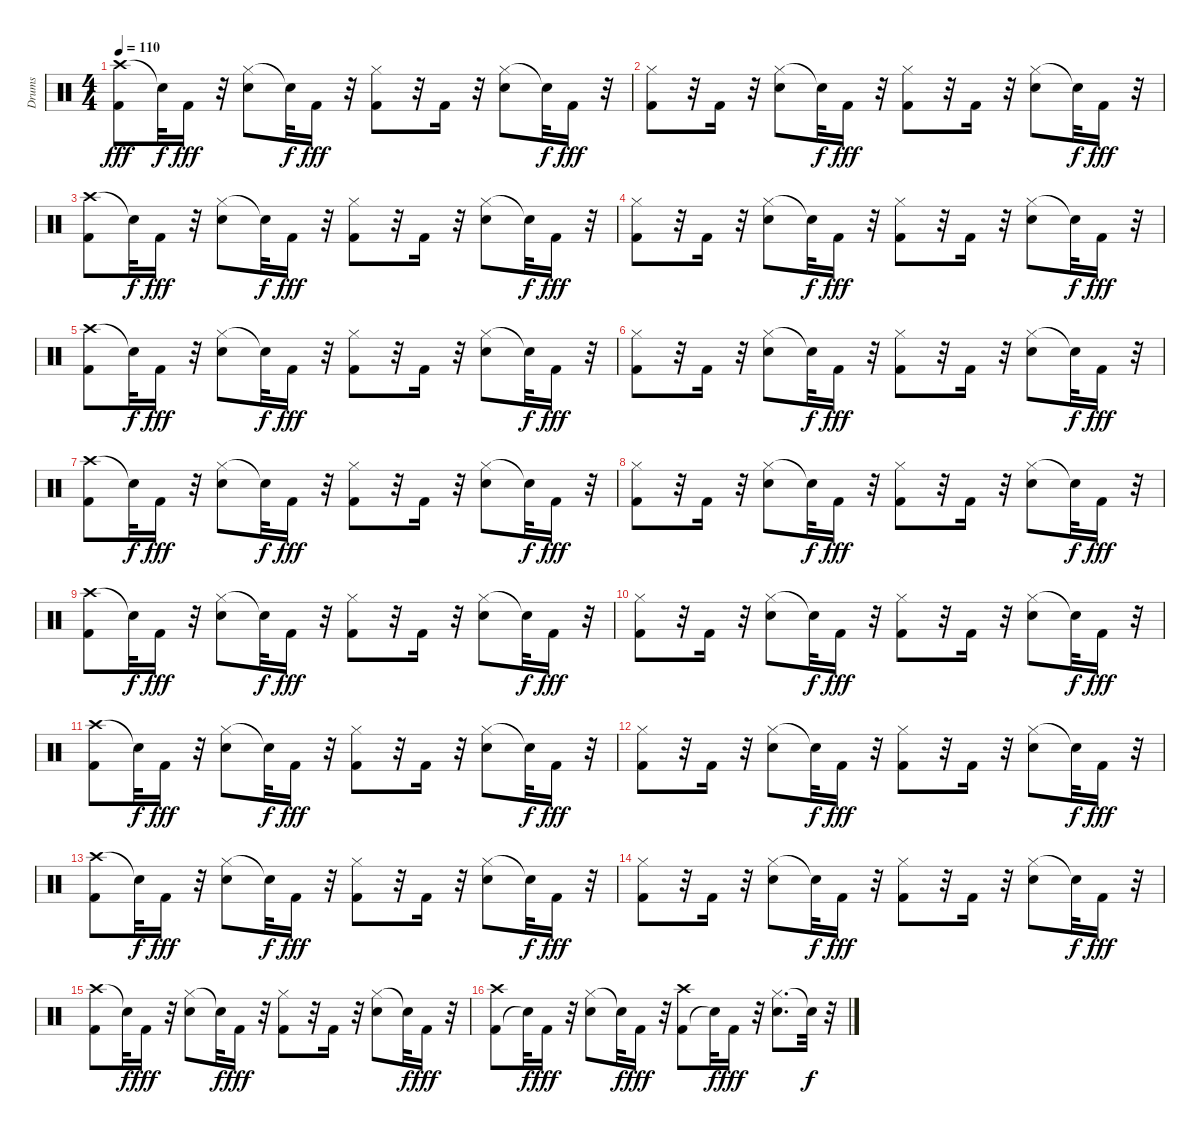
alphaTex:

\track ("Drums" "Drums") {instrument percussion}
\staff {score}
\articulation defaults
\ts (4 4)
\tempo 110
\clef neutral
\ks c
("Crash high (hit)" "Kick (hit) 2").8{dy fff} "Snare (hit)"{t}.32{dy f} "Kick (hit) 2".16{dy fff} r.32 ("Hi-Hat (closed)" "Snare (hit) 2").8 "Snare (hit)"{t}.32{dy f} "Kick (hit) 2".16{dy fff} r.32 ("Kick (hit) 2" "Hi-Hat (closed)").8 r.32 "Kick (hit) 2".16 r.32 ("Hi-Hat (closed)" "Snare (hit) 2").8 "Snare (hit)"{t}.32{dy f} "Kick (hit) 2".16{dy fff} r.32 |
("Kick (hit) 2" "Hi-Hat (closed)").8 r.32 "Kick (hit) 2".16 r.32 ("Hi-Hat (closed)" "Snare (hit) 2").8 "Snare (hit)"{t}.32{dy f} "Kick (hit) 2".16{dy fff} r.32 ("Kick (hit) 2" "Hi-Hat (closed)").8 r.32 "Kick (hit) 2".16 r.32 ("Hi-Hat (closed)" "Snare (hit) 2").8 "Snare (hit)"{t}.32{dy f} "Kick (hit) 2".16{dy fff} r.32 |
("Crash high (hit)" "Kick (hit) 2").8 "Snare (hit)"{t}.32{dy f} "Kick (hit) 2".16{dy fff} r.32 ("Hi-Hat (closed)" "Snare (hit) 2").8 "Snare (hit)"{t}.32{dy f} "Kick (hit) 2".16{dy fff} r.32 ("Kick (hit) 2" "Hi-Hat (closed)").8 r.32 "Kick (hit) 2".16 r.32 ("Hi-Hat (closed)" "Snare (hit) 2").8 "Snare (hit)"{t}.32{dy f} "Kick (hit) 2".16{dy fff} r.32 |
("Kick (hit) 2" "Hi-Hat (closed)").8 r.32 "Kick (hit) 2".16 r.32 ("Hi-Hat (closed)" "Snare (hit) 2").8 "Snare (hit)"{t}.32{dy f} "Kick (hit) 2".16{dy fff} r.32 ("Kick (hit) 2" "Hi-Hat (closed)").8 r.32 "Kick (hit) 2".16 r.32 ("Hi-Hat (closed)" "Snare (hit) 2").8 "Snare (hit)"{t}.32{dy f} "Kick (hit) 2".16{dy fff} r.32 |
("Crash high (hit)" "Kick (hit) 2").8 "Snare (hit)"{t}.32{dy f} "Kick (hit) 2".16{dy fff} r.32 ("Hi-Hat (closed)" "Snare (hit) 2").8 "Snare (hit)"{t}.32{dy f} "Kick (hit) 2".16{dy fff} r.32 ("Kick (hit) 2" "Hi-Hat (closed)").8 r.32 "Kick (hit) 2".16 r.32 ("Hi-Hat (closed)" "Snare (hit) 2").8 "Snare (hit)"{t}.32{dy f} "Kick (hit) 2".16{dy fff} r.32 |
("Kick (hit) 2" "Hi-Hat (closed)").8 r.32 "Kick (hit) 2".16 r.32 ("Hi-Hat (closed)" "Snare (hit) 2").8 "Snare (hit)"{t}.32{dy f} "Kick (hit) 2".16{dy fff} r.32 ("Kick (hit) 2" "Hi-Hat (closed)").8 r.32 "Kick (hit) 2".16 r.32 ("Hi-Hat (closed)" "Snare (hit) 2").8 "Snare (hit)"{t}.32{dy f} "Kick (hit) 2".16{dy fff} r.32 |
("Crash high (hit)" "Kick (hit) 2").8 "Snare (hit)"{t}.32{dy f} "Kick (hit) 2".16{dy fff} r.32 ("Hi-Hat (closed)" "Snare (hit) 2").8 "Snare (hit)"{t}.32{dy f} "Kick (hit) 2".16{dy fff} r.32 ("Kick (hit) 2" "Hi-Hat (closed)").8 r.32 "Kick (hit) 2".16 r.32 ("Hi-Hat (closed)" "Snare (hit) 2").8 "Snare (hit)"{t}.32{dy f} "Kick (hit) 2".16{dy fff} r.32 |
("Kick (hit) 2" "Hi-Hat (closed)").8 r.32 "Kick (hit) 2".16 r.32 ("Hi-Hat (closed)" "Snare (hit) 2").8 "Snare (hit)"{t}.32{dy f} "Kick (hit) 2".16{dy fff} r.32 ("Kick (hit) 2" "Hi-Hat (closed)").8 r.32 "Kick (hit) 2".16 r.32 ("Hi-Hat (closed)" "Snare (hit) 2").8 "Snare (hit)"{t}.32{dy f} "Kick (hit) 2".16{dy fff} r.32 |
("Crash high (hit)" "Kick (hit) 2").8 "Snare (hit)"{t}.32{dy f} "Kick (hit) 2".16{dy fff} r.32 ("Hi-Hat (closed)" "Snare (hit) 2").8 "Snare (hit)"{t}.32{dy f} "Kick (hit) 2".16{dy fff} r.32 ("Kick (hit) 2" "Hi-Hat (closed)").8 r.32 "Kick (hit) 2".16 r.32 ("Hi-Hat (closed)" "Snare (hit) 2").8 "Snare (hit)"{t}.32{dy f} "Kick (hit) 2".16{dy fff} r.32 |
("Kick (hit) 2" "Hi-Hat (closed)").8 r.32 "Kick (hit) 2".16 r.32 ("Hi-Hat (closed)" "Snare (hit) 2").8 "Snare (hit)"{t}.32{dy f} "Kick (hit) 2".16{dy fff} r.32 ("Kick (hit) 2" "Hi-Hat (closed)").8 r.32 "Kick (hit) 2".16 r.32 ("Hi-Hat (closed)" "Snare (hit) 2").8 "Snare (hit)"{t}.32{dy f} "Kick (hit) 2".16{dy fff} r.32 |
("Crash high (hit)" "Kick (hit) 2").8 "Snare (hit)"{t}.32{dy f} "Kick (hit) 2".16{dy fff} r.32 ("Hi-Hat (closed)" "Snare (hit) 2").8 "Snare (hit)"{t}.32{dy f} "Kick (hit) 2".16{dy fff} r.32 ("Kick (hit) 2" "Hi-Hat (closed)").8 r.32 "Kick (hit) 2".16 r.32 ("Hi-Hat (closed)" "Snare (hit) 2").8 "Snare (hit)"{t}.32{dy f} "Kick (hit) 2".16{dy fff} r.32 |
("Kick (hit) 2" "Hi-Hat (closed)").8 r.32 "Kick (hit) 2".16 r.32 ("Hi-Hat (closed)" "Snare (hit) 2").8 "Snare (hit)"{t}.32{dy f} "Kick (hit) 2".16{dy fff} r.32 ("Kick (hit) 2" "Hi-Hat (closed)").8 r.32 "Kick (hit) 2".16 r.32 ("Hi-Hat (closed)" "Snare (hit) 2").8 "Snare (hit)"{t}.32{dy f} "Kick (hit) 2".16{dy fff} r.32 |
("Crash high (hit)" "Kick (hit) 2").8 "Snare (hit)"{t}.32{dy f} "Kick (hit) 2".16{dy fff} r.32 ("Hi-Hat (closed)" "Snare (hit) 2").8 "Snare (hit)"{t}.32{dy f} "Kick (hit) 2".16{dy fff} r.32 ("Kick (hit) 2" "Hi-Hat (closed)").8 r.32 "Kick (hit) 2".16 r.32 ("Hi-Hat (closed)" "Snare (hit) 2").8 "Snare (hit)"{t}.32{dy f} "Kick (hit) 2".16{dy fff} r.32 |
("Kick (hit) 2" "Hi-Hat (closed)").8 r.32 "Kick (hit) 2".16 r.32 ("Hi-Hat (closed)" "Snare (hit) 2").8 "Snare (hit)"{t}.32{dy f} "Kick (hit) 2".16{dy fff} r.32 ("Kick (hit) 2" "Hi-Hat (closed)").8 r.32 "Kick (hit) 2".16 r.32 ("Hi-Hat (closed)" "Snare (hit) 2").8 "Snare (hit)"{t}.32{dy f} "Kick (hit) 2".16{dy fff} r.32 |
("Crash high (hit)" "Kick (hit) 2").8 "Snare (hit)"{t}.32{dy f} "Kick (hit) 2".16{dy fff} r.32 ("Hi-Hat (closed)" "Snare (hit) 2").8 "Snare (hit)"{t}.32{dy f} "Kick (hit) 2".16{dy fff} r.32 ("Kick (hit) 2" "Hi-Hat (closed)").8 r.32 "Kick (hit) 2".16 r.32 ("Hi-Hat (closed)" "Snare (hit) 2").8 "Snare (hit)"{t}.32{dy f} "Kick (hit) 2".16{dy fff} r.32 |
("Kick (hit) 2" "Crash high (hit)").8 "Snare (hit)"{t}.32{dy f} "Kick (hit) 2".16{dy fff} r.32 ("Hi-Hat (closed)" "Snare (hit) 2").8 "Snare (hit)"{t}.32{dy f} "Kick (hit) 2".16{dy fff} r.32 ("Kick (hit) 2" "Crash high (hit)").8 "Snare (hit)"{t}.32{dy f} "Kick (hit) 2".16{dy fff} r.32 ("Hi-Hat (closed)" "Snare (hit) 2").8{d} "Snare (hit)"{t}.32{dy f} r.32
